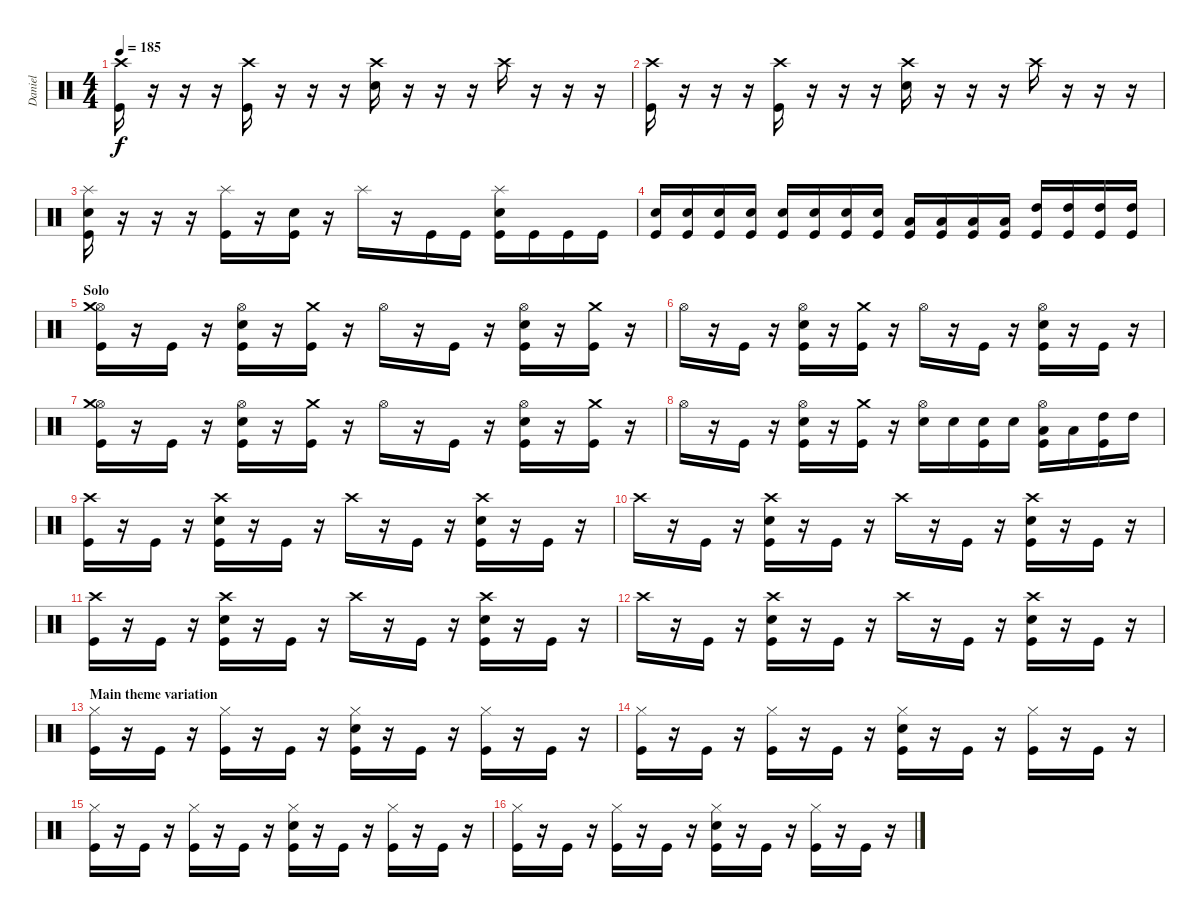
\track ("Daniel" "Daniel") {instrument percussion}
\staff {score}
\articulation defaults
\ts (4 4)
\tempo 185
\clef neutral
\ks c
("Crash high (hit)" "Kick (hit)").16{dy f} r.16 r.16 r.16 ("Crash high (hit)" "Kick (hit)").16 r.16 r.16 r.16 ("Crash high (hit)" "Snare (hit) 2").16 r.16 r.16 r.16 "Crash high (hit)".16 r.16 r.16 r.16 |
("Crash high (hit)" "Kick (hit)").16 r.16 r.16 r.16 ("Crash high (hit)" "Kick (hit)").16 r.16 r.16 r.16 ("Crash high (hit)" "Snare (hit) 2").16 r.16 r.16 r.16 "Crash high (hit)".16 r.16 r.16 r.16 |
("Splash (hit)" "Snare (hit) 2" "Kick (hit)").16 r.16 r.16 r.16 ("Splash (hit)" "Kick (hit)").16 r.16 ("Snare (hit) 2" "Kick (hit)").16 r.16 "Splash (hit)".16 r.16 "Kick (hit)".16 "Kick (hit)".16 ("Splash (hit)" "Snare (hit) 2" "Kick (hit)").16 "Kick (hit)".16 "Kick (hit)".16 "Kick (hit)".16 |
("Snare (hit) 2" "Kick (hit)").16 ("Snare (hit) 2" "Kick (hit)").16 ("Snare (hit) 2" "Kick (hit)").16 ("Snare (hit) 2" "Kick (hit)").16 ("Snare (hit) 2" "Kick (hit)").16 ("Snare (hit) 2" "Kick (hit)").16 ("Snare (hit) 2" "Kick (hit)").16 ("Snare (hit) 2" "Kick (hit)").16 ("Low Tom (hit)" "Kick (hit)").16 ("Low Tom (hit)" "Kick (hit)").16 ("Low Tom (hit)" "Kick (hit)").16 ("Low Tom (hit)" "Kick (hit)").16 ("High Tom (hit)" "Kick (hit)").16 ("High Tom (hit)" "Kick (hit)").16 ("High Tom (hit)" "Kick (hit)").16 ("High Tom (hit)" "Kick (hit)").16 |
\section ("" "Solo")
("Hi-Hat (open)" "Crash medium (hit)" "Kick (hit)").16 r.16 "Kick (hit)".16 r.16 ("Hi-Hat (open)" "Snare (hit) 2" "Kick (hit)").16 r.16 ("Crash medium (hit)" "Kick (hit)").16 r.16 "Hi-Hat (open)".16 r.16 "Kick (hit)".16 r.16 ("Hi-Hat (open)" "Snare (hit) 2" "Kick (hit)").16 r.16 ("Crash medium (hit)" "Kick (hit)").16 r.16 |
"Hi-Hat (open)".16 r.16 "Kick (hit)".16 r.16 ("Hi-Hat (open)" "Snare (hit) 2" "Kick (hit)").16 r.16 ("Crash medium (hit)" "Kick (hit)").16 r.16 "Hi-Hat (open)".16 r.16 "Kick (hit)".16 r.16 ("Hi-Hat (open)" "Snare (hit) 2" "Kick (hit)").16 r.16 "Kick (hit)".16 r.16 |
("Hi-Hat (open)" "Crash medium (hit)" "Kick (hit)").16 r.16 "Kick (hit)".16 r.16 ("Hi-Hat (open)" "Snare (hit) 2" "Kick (hit)").16 r.16 ("Crash medium (hit)" "Kick (hit)").16 r.16 "Hi-Hat (open)".16 r.16 "Kick (hit)".16 r.16 ("Hi-Hat (open)" "Snare (hit) 2" "Kick (hit)").16 r.16 ("Crash medium (hit)" "Kick (hit)").16 r.16 |
"Hi-Hat (open)".16 r.16 "Kick (hit)".16 r.16 ("Hi-Hat (open)" "Snare (hit) 2" "Kick (hit)").16 r.16 ("Crash medium (hit)" "Kick (hit)").16 r.16 ("Hi-Hat (open)" "Snare (hit) 2").16 "Snare (hit) 2".16 ("Snare (hit) 2" "Kick (hit)").16 "Snare (hit) 2".16 ("Hi-Hat (open)" "Low Tom (hit)" "Kick (hit)").16 "Low Tom (hit)".16 ("High Tom (hit)" "Kick (hit)").16 "High Tom (hit)".16 |
("Crash high (hit)" "Kick (hit)").16 r.16 "Kick (hit)".16 r.16 ("Crash high (hit)" "Snare (hit) 2" "Kick (hit)").16 r.16 "Kick (hit)".16 r.16 "Crash high (hit)".16 r.16 "Kick (hit)".16 r.16 ("Crash high (hit)" "Snare (hit) 2" "Kick (hit)").16 r.16 "Kick (hit)".16 r.16 |
"Crash high (hit)".16 r.16 "Kick (hit)".16 r.16 ("Crash high (hit)" "Snare (hit) 2" "Kick (hit)").16 r.16 "Kick (hit)".16 r.16 "Crash high (hit)".16 r.16 "Kick (hit)".16 r.16 ("Crash high (hit)" "Snare (hit) 2" "Kick (hit)").16 r.16 "Kick (hit)".16 r.16 |
("Crash high (hit)" "Kick (hit)").16 r.16 "Kick (hit)".16 r.16 ("Crash high (hit)" "Snare (hit) 2" "Kick (hit)").16 r.16 "Kick (hit)".16 r.16 "Crash high (hit)".16 r.16 "Kick (hit)".16 r.16 ("Crash high (hit)" "Snare (hit) 2" "Kick (hit)").16 r.16 "Kick (hit)".16 r.16 |
"Crash high (hit)".16 r.16 "Kick (hit)".16 r.16 ("Crash high (hit)" "Snare (hit) 2" "Kick (hit)").16 r.16 "Kick (hit)".16 r.16 "Crash high (hit)".16 r.16 "Kick (hit)".16 r.16 ("Crash high (hit)" "Snare (hit) 2" "Kick (hit)").16 r.16 "Kick (hit)".16 r.16 |
\section ("" "Main theme variation")
("Hi-Hat (closed)" "Kick (hit)").16 r.16 "Kick (hit)".16 r.16 ("Hi-Hat (closed)" "Kick (hit)").16 r.16 "Kick (hit)".16 r.16 ("Hi-Hat (closed)" "Snare (hit) 2" "Kick (hit)").16 r.16 "Kick (hit)".16 r.16 ("Hi-Hat (closed)" "Kick (hit)").16 r.16 "Kick (hit)".16 r.16 |
("Hi-Hat (closed)" "Kick (hit)").16 r.16 "Kick (hit)".16 r.16 ("Hi-Hat (closed)" "Kick (hit)").16 r.16 "Kick (hit)".16 r.16 ("Hi-Hat (closed)" "Snare (hit) 2" "Kick (hit)").16 r.16 "Kick (hit)".16 r.16 ("Hi-Hat (closed)" "Kick (hit)").16 r.16 "Kick (hit)".16 r.16 |
("Hi-Hat (closed)" "Kick (hit)").16 r.16 "Kick (hit)".16 r.16 ("Hi-Hat (closed)" "Kick (hit)").16 r.16 "Kick (hit)".16 r.16 ("Hi-Hat (closed)" "Snare (hit) 2" "Kick (hit)").16 r.16 "Kick (hit)".16 r.16 ("Hi-Hat (closed)" "Kick (hit)").16 r.16 "Kick (hit)".16 r.16 |
("Hi-Hat (closed)" "Kick (hit)").16 r.16 "Kick (hit)".16 r.16 ("Hi-Hat (closed)" "Kick (hit)").16 r.16 "Kick (hit)".16 r.16 ("Hi-Hat (closed)" "Snare (hit) 2" "Kick (hit)").16 r.16 "Kick (hit)".16 r.16 ("Hi-Hat (closed)" "Kick (hit)").16 r.16 "Kick (hit)".16 r.16
